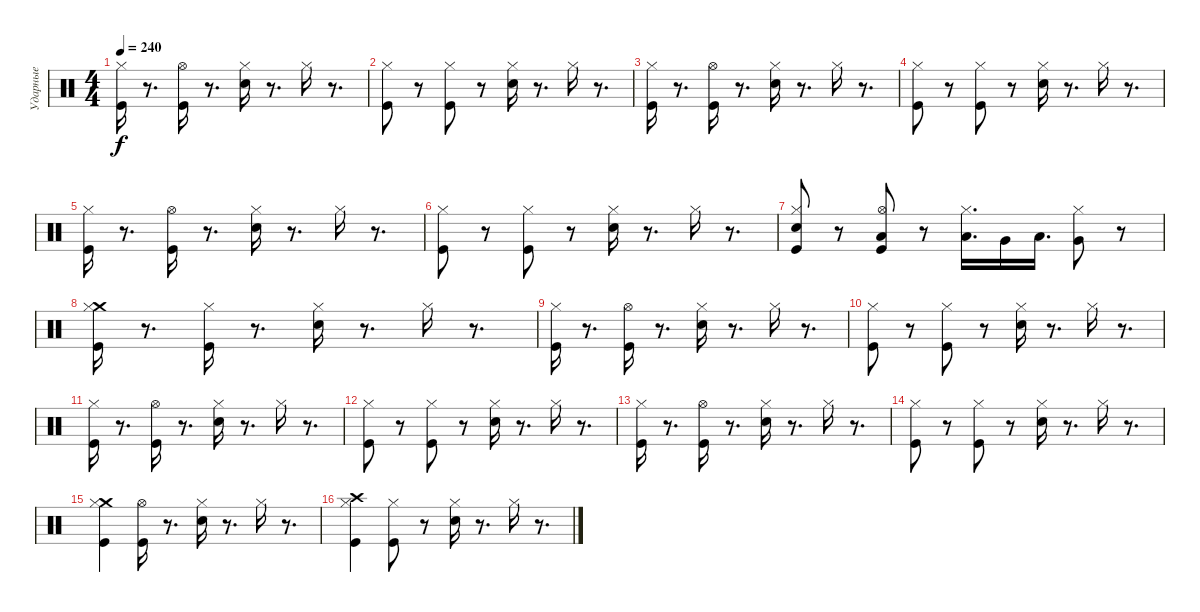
\track ("Ударные" "Ударные") {instrument percussion}
\staff {score}
\articulation defaults
\ts (4 4)
\tempo 240
\clef neutral
\ks c
("Kick (hit)" "Hi-Hat (closed)").16{dy f} r.8{d} ("Kick (hit)" "Hi-Hat (open)").16 r.8{d} ("Snare (hit) 2" "Hi-Hat (closed)").16 r.8{d} "Hi-Hat (closed)".16 r.8{d} |
("Hi-Hat (closed)" "Kick (hit)").8 r.8 ("Kick (hit)" "Hi-Hat (closed)").8 r.8 ("Snare (hit) 2" "Hi-Hat (closed)").16 r.8{d} "Hi-Hat (closed)".16 r.8{d} |
("Kick (hit)" "Hi-Hat (closed)").16 r.8{d} ("Kick (hit)" "Hi-Hat (open)").16 r.8{d} ("Snare (hit) 2" "Hi-Hat (closed)").16 r.8{d} "Hi-Hat (closed)".16 r.8{d} |
("Hi-Hat (closed)" "Kick (hit)").8 r.8 ("Kick (hit)" "Hi-Hat (closed)").8 r.8 ("Snare (hit) 2" "Hi-Hat (closed)").16 r.8{d} "Hi-Hat (closed)".16 r.8{d} |
("Kick (hit)" "Hi-Hat (closed)").16 r.8{d} ("Kick (hit)" "Hi-Hat (open)").16 r.8{d} ("Snare (hit) 2" "Hi-Hat (closed)").16 r.8{d} "Hi-Hat (closed)".16 r.8{d} |
("Hi-Hat (closed)" "Kick (hit)").8 r.8 ("Kick (hit)" "Hi-Hat (closed)").8 r.8 ("Snare (hit) 2" "Hi-Hat (closed)").16 r.8{d} "Hi-Hat (closed)".16 r.8{d} |
("Snare (hit) 2" "Kick (hit)" "Hi-Hat (closed)").8 r.8 ("Low Tom (hit)" "Kick (hit)" "Hi-Hat (open)").8 r.8 ("Low Tom (hit)" "Hi-Hat (closed)").16{d} "Very Low Tom (hit)".16 "Low Tom (hit)".16{d} ("Very Low Tom (hit)" "Hi-Hat (closed)").8 r.8 |
("Kick (hit)" "Crash medium (hit)" "Hi-Hat (closed)").16 r.8{d} ("Kick (hit)" "Hi-Hat (closed)").16 r.8{d} ("Snare (hit) 2" "Hi-Hat (closed)").16 r.8{d} "Hi-Hat (closed)".16 r.8{d} |
("Kick (hit)" "Hi-Hat (closed)").16 r.8{d} ("Kick (hit)" "Hi-Hat (open)").16 r.8{d} ("Snare (hit) 2" "Hi-Hat (closed)").16 r.8{d} "Hi-Hat (closed)".16 r.8{d} |
("Hi-Hat (closed)" "Kick (hit)").8 r.8 ("Kick (hit)" "Hi-Hat (closed)").8 r.8 ("Snare (hit) 2" "Hi-Hat (closed)").16 r.8{d} "Hi-Hat (closed)".16 r.8{d} |
("Kick (hit)" "Hi-Hat (closed)").16 r.8{d} ("Kick (hit)" "Hi-Hat (open)").16 r.8{d} ("Snare (hit) 2" "Hi-Hat (closed)").16 r.8{d} "Hi-Hat (closed)".16 r.8{d} |
("Hi-Hat (closed)" "Kick (hit)").8 r.8 ("Kick (hit)" "Hi-Hat (closed)").8 r.8 ("Snare (hit) 2" "Hi-Hat (closed)").16 r.8{d} "Hi-Hat (closed)".16 r.8{d} |
("Kick (hit)" "Hi-Hat (closed)").16 r.8{d} ("Kick (hit)" "Hi-Hat (open)").16 r.8{d} ("Snare (hit) 2" "Hi-Hat (closed)").16 r.8{d} "Hi-Hat (closed)".16 r.8{d} |
("Hi-Hat (closed)" "Kick (hit)").8 r.8 ("Kick (hit)" "Hi-Hat (closed)").8 r.8 ("Snare (hit) 2" "Hi-Hat (closed)").16 r.8{d} "Hi-Hat (closed)".16 r.8{d} |
("Crash medium (hit)" "Kick (hit)" "Hi-Hat (closed)").4 ("Kick (hit)" "Hi-Hat (open)").16 r.8{d} ("Snare (hit) 2" "Hi-Hat (closed)").16 r.8{d} "Hi-Hat (closed)".16 r.8{d} |
("Crash high (hit)" "Hi-Hat (closed)" "Kick (hit)").4 ("Kick (hit)" "Hi-Hat (closed)").8 r.8 ("Snare (hit) 2" "Hi-Hat (closed)").16 r.8{d} "Hi-Hat (closed)".16 r.8{d}
